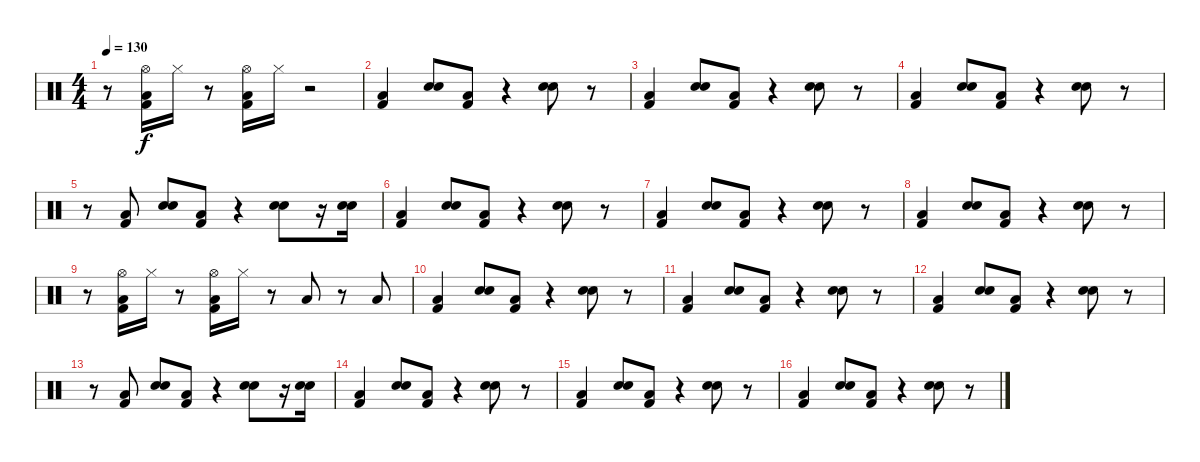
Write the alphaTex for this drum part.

\track "" {instrument percussion}
\staff {score}
\articulation defaults
\ts (4 4)
\tempo 130
\clef neutral
\ks c
r.8{dy f} ("Kick (hit) 2" "Low Floor Tom (hit)" "Hi-Hat (open)").16 "Hi-Hat (closed)".16 r.8 ("Kick (hit) 2" "Low Floor Tom (hit)" "Hi-Hat (open)").16 "Hi-Hat (closed)".16 r.2 |
("Kick (hit) 2" "Low Floor Tom (hit)").4 ("Snare (hit) 2" "Hand Clap (hit)").8 ("Kick (hit) 2" "Low Floor Tom (hit)").8 r.4 ("Snare (hit) 2" "Hand Clap (hit)").8 r.8 |
("Kick (hit) 2" "Low Floor Tom (hit)").4 ("Snare (hit) 2" "Hand Clap (hit)").8 ("Kick (hit) 2" "Low Floor Tom (hit)").8 r.4 ("Snare (hit) 2" "Hand Clap (hit)").8 r.8 |
("Kick (hit) 2" "Low Floor Tom (hit)").4 ("Snare (hit) 2" "Hand Clap (hit)").8 ("Kick (hit) 2" "Low Floor Tom (hit)").8 r.4 ("Snare (hit) 2" "Hand Clap (hit)").8 r.8 |
r.8 ("Kick (hit) 2" "Low Floor Tom (hit)").8 ("Snare (hit) 2" "Hand Clap (hit)").8 ("Kick (hit) 2" "Low Floor Tom (hit)").8 r.4 ("Snare (hit) 2" "Hand Clap (hit)").8 r.16 ("Snare (hit) 2" "Hand Clap (hit)").16 |
("Kick (hit) 2" "Low Floor Tom (hit)").4 ("Snare (hit) 2" "Hand Clap (hit)").8 ("Kick (hit) 2" "Low Floor Tom (hit)").8 r.4 ("Snare (hit) 2" "Hand Clap (hit)").8 r.8 |
("Kick (hit) 2" "Low Floor Tom (hit)").4 ("Snare (hit) 2" "Hand Clap (hit)").8 ("Kick (hit) 2" "Low Floor Tom (hit)").8 r.4 ("Snare (hit) 2" "Hand Clap (hit)").8 r.8 |
("Kick (hit) 2" "Low Floor Tom (hit)").4 ("Snare (hit) 2" "Hand Clap (hit)").8 ("Kick (hit) 2" "Low Floor Tom (hit)").8 r.4 ("Snare (hit) 2" "Hand Clap (hit)").8 r.8 |
r.8 ("Kick (hit) 2" "Low Floor Tom (hit)" "Hi-Hat (open)").16 "Hi-Hat (closed)".16 r.8 ("Kick (hit) 2" "Low Floor Tom (hit)" "Hi-Hat (open)").16 "Hi-Hat (closed)".16 r.8 "Low Floor Tom (hit)".8 r.8 "Low Floor Tom (hit)".8 |
("Kick (hit) 2" "Low Floor Tom (hit)").4 ("Snare (hit) 2" "Hand Clap (hit)").8 ("Kick (hit) 2" "Low Floor Tom (hit)").8 r.4 ("Snare (hit) 2" "Hand Clap (hit)").8 r.8 |
("Kick (hit) 2" "Low Floor Tom (hit)").4 ("Snare (hit) 2" "Hand Clap (hit)").8 ("Kick (hit) 2" "Low Floor Tom (hit)").8 r.4 ("Snare (hit) 2" "Hand Clap (hit)").8 r.8 |
("Kick (hit) 2" "Low Floor Tom (hit)").4 ("Snare (hit) 2" "Hand Clap (hit)").8 ("Kick (hit) 2" "Low Floor Tom (hit)").8 r.4 ("Snare (hit) 2" "Hand Clap (hit)").8 r.8 |
r.8 ("Kick (hit) 2" "Low Floor Tom (hit)").8 ("Snare (hit) 2" "Hand Clap (hit)").8 ("Kick (hit) 2" "Low Floor Tom (hit)").8 r.4 ("Snare (hit) 2" "Hand Clap (hit)").8 r.16 ("Snare (hit) 2" "Hand Clap (hit)").16 |
("Kick (hit) 2" "Low Floor Tom (hit)").4 ("Snare (hit) 2" "Hand Clap (hit)").8 ("Kick (hit) 2" "Low Floor Tom (hit)").8 r.4 ("Snare (hit) 2" "Hand Clap (hit)").8 r.8 |
("Kick (hit) 2" "Low Floor Tom (hit)").4 ("Snare (hit) 2" "Hand Clap (hit)").8 ("Kick (hit) 2" "Low Floor Tom (hit)").8 r.4 ("Snare (hit) 2" "Hand Clap (hit)").8 r.8 |
("Kick (hit) 2" "Low Floor Tom (hit)").4 ("Snare (hit) 2" "Hand Clap (hit)").8 ("Kick (hit) 2" "Low Floor Tom (hit)").8 r.4 ("Snare (hit) 2" "Hand Clap (hit)").8 r.8
